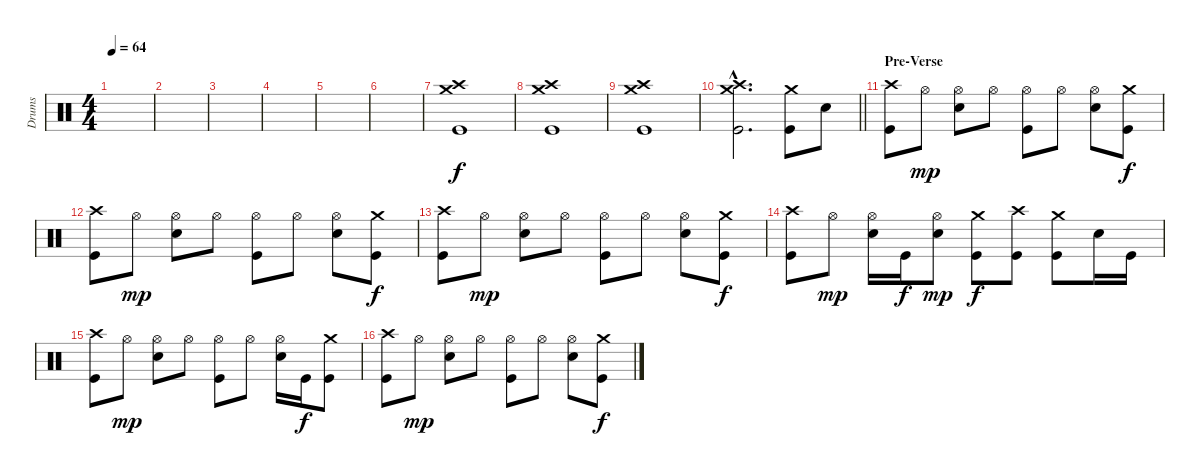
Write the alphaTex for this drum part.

\track ("Drums" "Drums") {instrument percussion}
\staff {score}
\articulation defaults
\ts (4 4)
\tempo 64
\clef neutral
\ks c
|
|
|
|
|
|
("Crash high (hit)" "Crash medium (hit)" "Kick (hit)").1 |
("Crash high (hit)" "Crash medium (hit)" "Kick (hit)").1 |
("Crash high (hit)" "Crash medium (hit)" "Kick (hit)").1 |
\barLineRight lightlight
("Crash high (hit)"{hac} "Crash medium (hit)"{hac} "Kick (hit)"{hac}).2{d} ("Crash medium (hit)" "Kick (hit)").8 "Snare (hit) 2".8 |
\section ("" "Pre-Verse")
("Crash high (hit)" "Kick (hit)").8 "Hi-Hat (open)".8{dy mp} ("Hi-Hat (open)" "Snare (hit) 2").8 "Hi-Hat (open)".8 ("Hi-Hat (open)" "Kick (hit)").8 "Hi-Hat (open)".8 ("Hi-Hat (open)" "Snare (hit) 2").8 ("Crash medium (hit)" "Kick (hit)").8{dy f} |
("Crash high (hit)" "Kick (hit)").8 "Hi-Hat (open)".8{dy mp} ("Hi-Hat (open)" "Snare (hit) 2").8 "Hi-Hat (open)".8 ("Hi-Hat (open)" "Kick (hit)").8 "Hi-Hat (open)".8 ("Hi-Hat (open)" "Snare (hit) 2").8 ("Crash medium (hit)" "Kick (hit)").8{dy f} |
("Crash high (hit)" "Kick (hit)").8 "Hi-Hat (open)".8{dy mp} ("Hi-Hat (open)" "Snare (hit) 2").8 "Hi-Hat (open)".8 ("Hi-Hat (open)" "Kick (hit)").8 "Hi-Hat (open)".8 ("Hi-Hat (open)" "Snare (hit) 2").8 ("Crash medium (hit)" "Kick (hit)").8{dy f} |
("Crash high (hit)" "Kick (hit)").8 "Hi-Hat (open)".8{dy mp} ("Hi-Hat (open)" "Snare (hit) 2").16 "Kick (hit)".16{dy f} ("Hi-Hat (open)" "Snare (hit) 2").8{dy mp} ("Crash medium (hit)" "Kick (hit)").8{dy f} ("Crash high (hit)" "Kick (hit)").8 ("Crash medium (hit)" "Kick (hit)").8 "Snare (hit) 2".16 "Kick (hit)".16 |
("Crash high (hit)" "Kick (hit)").8 "Hi-Hat (open)".8{dy mp} ("Hi-Hat (open)" "Snare (hit) 2").8 "Hi-Hat (open)".8 ("Hi-Hat (open)" "Kick (hit)").8 "Hi-Hat (open)".8 ("Hi-Hat (open)" "Snare (hit) 2").16 "Kick (hit)".16{dy f} ("Crash medium (hit)" "Kick (hit)").8 |
("Crash high (hit)" "Kick (hit)").8 "Hi-Hat (open)".8{dy mp} ("Hi-Hat (open)" "Snare (hit) 2").8 "Hi-Hat (open)".8 ("Hi-Hat (open)" "Kick (hit)").8 "Hi-Hat (open)".8 ("Hi-Hat (open)" "Snare (hit) 2").8 ("Crash medium (hit)" "Kick (hit)").8{dy f}
